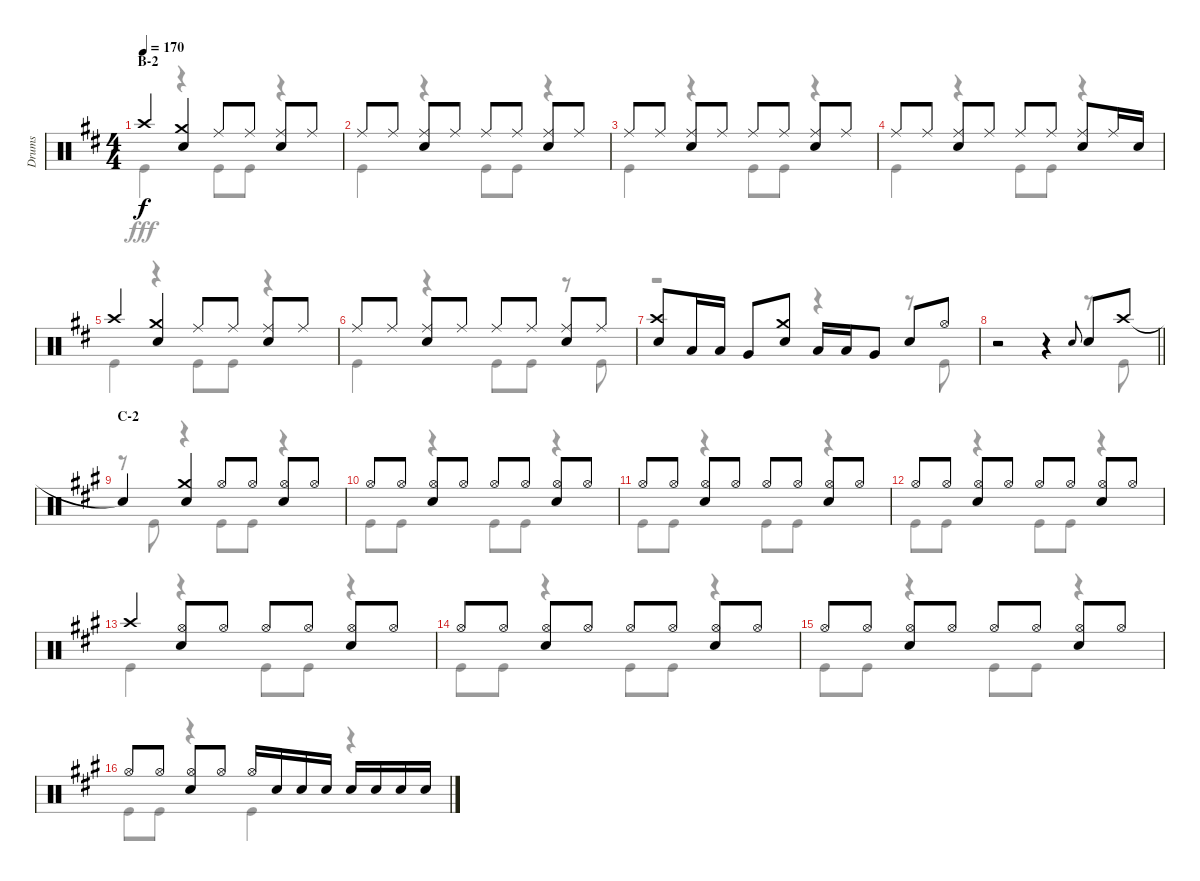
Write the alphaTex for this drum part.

\track ("Drums" "Drums") {instrument percussion}
\staff {score}
\articulation defaults
\voice
\ts (4 4)
\section ("" "B-2")
\tempo 170
\clef neutral
\ks d "Crash high (hit)".4{dy f}
("Crash medium (hit)" "Snare (hit) 2").4 "Ride (middle)".8 "Ride (middle)".8 ("Ride (middle)" "Snare (hit) 2").8 "Ride (middle)".8 |
"Ride (middle)".8 "Ride (middle)".8 ("Ride (middle)" "Snare (hit) 2").8 "Ride (middle)".8 "Ride (middle)".8 "Ride (middle)".8 ("Ride (middle)" "Snare (hit) 2").8 "Ride (middle)".8 |
"Ride (middle)".8 "Ride (middle)".8 ("Ride (middle)" "Snare (hit) 2").8 "Ride (middle)".8 "Ride (middle)".8 "Ride (middle)".8 ("Ride (middle)" "Snare (hit) 2").8 "Ride (middle)".8 |
"Ride (middle)".8 "Ride (middle)".8 ("Ride (middle)" "Snare (hit) 2").8 "Ride (middle)".8 "Ride (middle)".8 "Ride (middle)".8 ("Ride (middle)" "Snare (hit) 2").8 "Ride (middle)".16 "Snare (hit) 2".16 |
"Crash high (hit)".4 ("Crash medium (hit)" "Snare (hit) 2").4 "Ride (middle)".8 "Ride (middle)".8 ("Ride (middle)" "Snare (hit) 2").8 "Ride (middle)".8 |
"Ride (middle)".8 "Ride (middle)".8 ("Ride (middle)" "Snare (hit) 2").8 "Ride (middle)".8 "Ride (middle)".8 "Ride (middle)".8 ("Ride (middle)" "Snare (hit) 2").8 "Ride (middle)".8 |
("Crash high (hit)" "Snare (hit) 2").8 "Low Tom (hit)".16 "Low Tom (hit)".16 "Very Low Tom (hit)".8 ("Crash medium (hit)" "Snare (hit) 2").8 "Low Tom (hit)".16 "Low Tom (hit)".16 "Very Low Tom (hit)".8 "Snare (hit) 2".8 "Hi-Hat (open)".8 |
\barLineRight lightlight
r.2 r.4 "Snare (hit) 2".8{gr onbeat} "Snare (hit) 2".8 "Crash high (hit)".8 |
\section ("" "C-2")
\ks a "Snare (hit)"{t}.4
("Crash medium (hit)" "Snare (hit) 2").4 "Hi-Hat (open)".8 "Hi-Hat (open)".8 ("Hi-Hat (open)" "Snare (hit) 2").8 "Hi-Hat (open)".8 |
"Hi-Hat (open)".8 "Hi-Hat (open)".8 ("Hi-Hat (open)" "Snare (hit) 2").8 "Hi-Hat (open)".8 "Hi-Hat (open)".8 "Hi-Hat (open)".8 ("Hi-Hat (open)" "Snare (hit) 2").8 "Hi-Hat (open)".8 |
"Hi-Hat (open)".8 "Hi-Hat (open)".8 ("Hi-Hat (open)" "Snare (hit) 2").8 "Hi-Hat (open)".8 "Hi-Hat (open)".8 "Hi-Hat (open)".8 ("Hi-Hat (open)" "Snare (hit) 2").8 "Hi-Hat (open)".8 |
"Hi-Hat (open)".8 "Hi-Hat (open)".8 ("Hi-Hat (open)" "Snare (hit) 2").8 "Hi-Hat (open)".8 "Hi-Hat (open)".8 "Hi-Hat (open)".8 ("Hi-Hat (open)" "Snare (hit) 2").8 "Hi-Hat (open)".8 |
"Crash high (hit)".4 ("Hi-Hat (open)" "Snare (hit) 2").8 "Hi-Hat (open)".8 "Hi-Hat (open)".8 "Hi-Hat (open)".8 ("Hi-Hat (open)" "Snare (hit) 2").8 "Hi-Hat (open)".8 |
"Hi-Hat (open)".8 "Hi-Hat (open)".8 ("Hi-Hat (open)" "Snare (hit) 2").8 "Hi-Hat (open)".8 "Hi-Hat (open)".8 "Hi-Hat (open)".8 ("Hi-Hat (open)" "Snare (hit) 2").8 "Hi-Hat (open)".8 |
"Hi-Hat (open)".8 "Hi-Hat (open)".8 ("Hi-Hat (open)" "Snare (hit) 2").8 "Hi-Hat (open)".8 "Hi-Hat (open)".8 "Hi-Hat (open)".8 ("Hi-Hat (open)" "Snare (hit) 2").8 "Hi-Hat (open)".8 |
"Hi-Hat (open)".8 "Hi-Hat (open)".8 ("Hi-Hat (open)" "Snare (hit) 2").8 "Hi-Hat (open)".8 "Hi-Hat (open)".16 "Snare (hit) 2".16 "Snare (hit) 2".16 "Snare (hit) 2".16 "Snare (hit) 2".16 "Snare (hit) 2".16 "Snare (hit) 2".16 "Snare (hit) 2".16
\voice
\clef neutral
\ottava regular
\simile none
\ks d "Kick (hit)".4{dy fff}
r.4 "Kick (hit)".8 "Kick (hit)".8 r.4 |
"Kick (hit)".4 r.4 "Kick (hit)".8 "Kick (hit)".8 r.4 |
"Kick (hit)".4 r.4 "Kick (hit)".8 "Kick (hit)".8 r.4 |
"Kick (hit)".4 r.4 "Kick (hit)".8 "Kick (hit)".8 r.4 |
"Kick (hit)".4 r.4 "Kick (hit)".8 "Kick (hit)".8 r.4 |
"Kick (hit)".4 r.4 "Kick (hit)".8 "Kick (hit)".8 r.8 "Kick (hit)".8 |
r.2 r.4 r.8 "Kick (hit)".8 |
\barLineRight lightlight
r.2 r.4 r.8 "Kick (hit)".8 |
\ks a
r.8 "Kick (hit)".8 r.4 "Kick (hit)".8 "Kick (hit)".8 r.4 |
"Kick (hit)".8 "Kick (hit)".8 r.4 "Kick (hit)".8 "Kick (hit)".8 r.4 |
"Kick (hit)".8 "Kick (hit)".8 r.4 "Kick (hit)".8 "Kick (hit)".8 r.4 |
"Kick (hit)".8 "Kick (hit)".8 r.4 "Kick (hit)".8 "Kick (hit)".8 r.4 |
"Kick (hit)".4 r.4 "Kick (hit)".8 "Kick (hit)".8 r.4 |
"Kick (hit)".8 "Kick (hit)".8 r.4 "Kick (hit)".8 "Kick (hit)".8 r.4 |
"Kick (hit)".8 "Kick (hit)".8 r.4 "Kick (hit)".8 "Kick (hit)".8 r.4 |
"Kick (hit)".8 "Kick (hit)".8 r.4 "Kick (hit)".4 r.4
